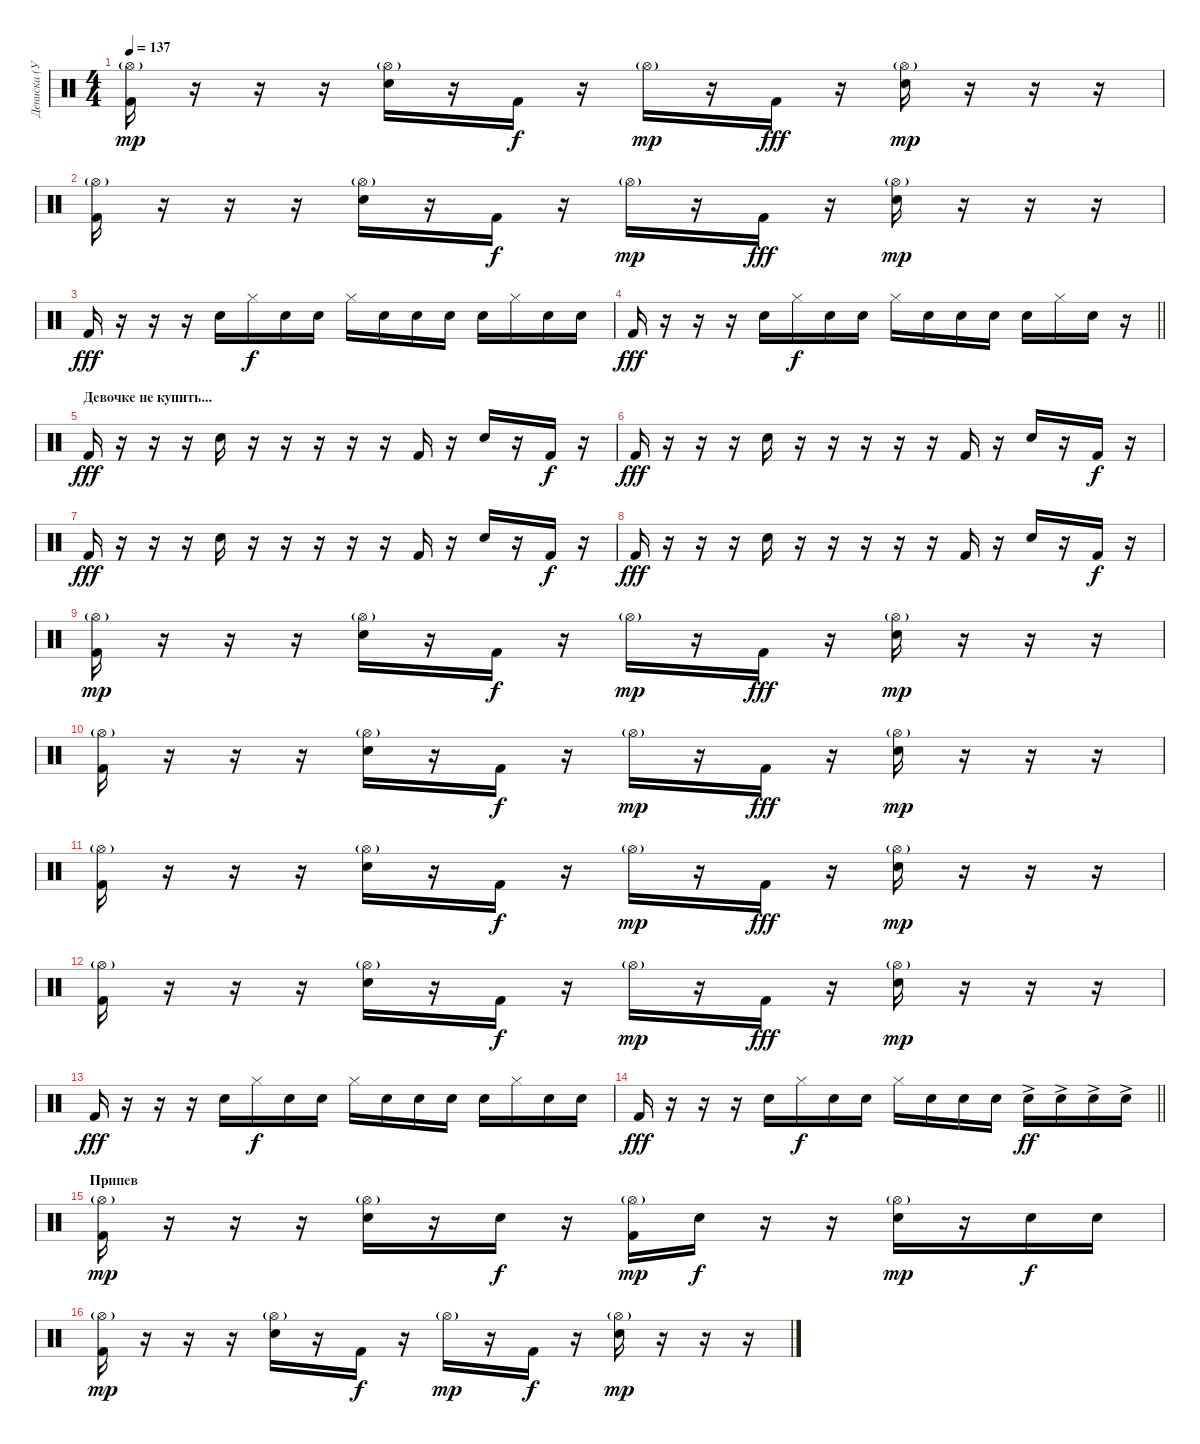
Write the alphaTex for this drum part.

\track ("Дениска (Ударник)" "Дениска (У") {instrument percussion}
\staff
\articulation defaults
\ts (4 4)
\tempo 137
\clef neutral
\ks c
("Kick (hit) 2" "Hi-Hat (open)"{g}).16{dy mp} r.16 r.16 r.16 ("Snare (hit) 2" "Hi-Hat (open)"{g}).16 r.16 "Kick (hit) 2".16{dy f} r.16 "Hi-Hat (open)"{g}.16{dy mp} r.16 "Kick (hit) 2".16{dy fff} r.16 ("Snare (hit) 2" "Hi-Hat (open)"{g}).16{dy mp} r.16 r.16 r.16 |
("Kick (hit) 2" "Hi-Hat (open)"{g}).16 r.16 r.16 r.16 ("Snare (hit) 2" "Hi-Hat (open)"{g}).16 r.16 "Kick (hit) 2".16{dy f} r.16 "Hi-Hat (open)"{g}.16{dy mp} r.16 "Kick (hit) 2".16{dy fff} r.16 ("Snare (hit) 2" "Hi-Hat (open)"{g}).16{dy mp} r.16 r.16 r.16 |
"Kick (hit) 2".16{dy fff} r.16 r.16 r.16 "Snare (hit) 2".16 "Hi-Hat (closed)".16{dy f} "Snare (hit) 2".16 "Snare (hit) 2".16 "Hi-Hat (closed)".16 "Snare (hit) 2".16 "Snare (hit) 2".16 "Snare (hit) 2".16 "Snare (hit) 2".16 "Hi-Hat (closed)".16 "Snare (hit) 2".16 "Snare (hit) 2".16 |
\barLineRight lightlight "Kick (hit) 2".16{dy fff}
r.16 r.16 r.16 "Snare (hit) 2".16 "Hi-Hat (closed)".16{dy f} "Snare (hit) 2".16 "Snare (hit) 2".16 "Hi-Hat (closed)".16 "Snare (hit) 2".16 "Snare (hit) 2".16 "Snare (hit) 2".16 "Snare (hit) 2".16 "Hi-Hat (closed)".16 "Snare (hit) 2".16 r.16 |
\section ("" "Девочке не купить...")
"Kick (hit) 2".16{dy fff} r.16 r.16 r.16 "Snare (hit) 2".16 r.16 r.16 r.16 r.16 r.16 "Kick (hit) 2".16 r.16 "Snare (hit) 2".16 r.16 "Kick (hit) 2".16{dy f} r.16 |
"Kick (hit) 2".16{dy fff} r.16 r.16 r.16 "Snare (hit) 2".16 r.16 r.16 r.16 r.16 r.16 "Kick (hit) 2".16 r.16 "Snare (hit) 2".16 r.16 "Kick (hit) 2".16{dy f} r.16 |
"Kick (hit) 2".16{dy fff} r.16 r.16 r.16 "Snare (hit) 2".16 r.16 r.16 r.16 r.16 r.16 "Kick (hit) 2".16 r.16 "Snare (hit) 2".16 r.16 "Kick (hit) 2".16{dy f} r.16 |
"Kick (hit) 2".16{dy fff} r.16 r.16 r.16 "Snare (hit) 2".16 r.16 r.16 r.16 r.16 r.16 "Kick (hit) 2".16 r.16 "Snare (hit) 2".16 r.16 "Kick (hit) 2".16{dy f} r.16 |
("Kick (hit) 2" "Hi-Hat (open)"{g}).16{dy mp} r.16 r.16 r.16 ("Snare (hit) 2" "Hi-Hat (open)"{g}).16 r.16 "Kick (hit) 2".16{dy f} r.16 "Hi-Hat (open)"{g}.16{dy mp} r.16 "Kick (hit) 2".16{dy fff} r.16 ("Snare (hit) 2" "Hi-Hat (open)"{g}).16{dy mp} r.16 r.16 r.16 |
("Kick (hit) 2" "Hi-Hat (open)"{g}).16 r.16 r.16 r.16 ("Snare (hit) 2" "Hi-Hat (open)"{g}).16 r.16 "Kick (hit) 2".16{dy f} r.16 "Hi-Hat (open)"{g}.16{dy mp} r.16 "Kick (hit) 2".16{dy fff} r.16 ("Snare (hit) 2" "Hi-Hat (open)"{g}).16{dy mp} r.16 r.16 r.16 |
("Kick (hit) 2" "Hi-Hat (open)"{g}).16 r.16 r.16 r.16 ("Snare (hit) 2" "Hi-Hat (open)"{g}).16 r.16 "Kick (hit) 2".16{dy f} r.16 "Hi-Hat (open)"{g}.16{dy mp} r.16 "Kick (hit) 2".16{dy fff} r.16 ("Snare (hit) 2" "Hi-Hat (open)"{g}).16{dy mp} r.16 r.16 r.16 |
("Kick (hit) 2" "Hi-Hat (open)"{g}).16 r.16 r.16 r.16 ("Snare (hit) 2" "Hi-Hat (open)"{g}).16 r.16 "Kick (hit) 2".16{dy f} r.16 "Hi-Hat (open)"{g}.16{dy mp} r.16 "Kick (hit) 2".16{dy fff} r.16 ("Snare (hit) 2" "Hi-Hat (open)"{g}).16{dy mp} r.16 r.16 r.16 |
"Kick (hit) 2".16{dy fff} r.16 r.16 r.16 "Snare (hit) 2".16 "Hi-Hat (closed)".16{dy f} "Snare (hit) 2".16 "Snare (hit) 2".16 "Hi-Hat (closed)".16 "Snare (hit) 2".16 "Snare (hit) 2".16 "Snare (hit) 2".16 "Snare (hit) 2".16 "Hi-Hat (closed)".16 "Snare (hit) 2".16 "Snare (hit) 2".16 |
\barLineRight lightlight "Kick (hit) 2".16{dy fff}
r.16 r.16 r.16 "Snare (hit) 2".16 "Hi-Hat (closed)".16{dy f} "Snare (hit) 2".16 "Snare (hit) 2".16 "Hi-Hat (closed)".16 "Snare (hit) 2".16 "Snare (hit) 2".16 "Snare (hit) 2".16 "Snare (hit) 2"{ac}.16{dy ff} "Snare (hit) 2"{ac}.16 "Snare (hit) 2"{ac}.16 "Snare (hit) 2"{ac}.16 |
\section ("" "Припев")
("Kick (hit) 2" "Hi-Hat (open)"{g}).16{dy mp} r.16 r.16 r.16 ("Snare (hit) 2" "Hi-Hat (open)"{g}).16 r.16 "Snare (hit) 2".16{dy f} r.16 ("Kick (hit) 2" "Hi-Hat (open)"{g}).16{dy mp} "Snare (hit) 2".16{dy f} r.16 r.16 ("Snare (hit) 2" "Hi-Hat (open)"{g}).16{dy mp} r.16 "Snare (hit) 2".16{dy f} "Snare (hit) 2".16 |
("Kick (hit) 2" "Hi-Hat (open)"{g}).16{dy mp} r.16 r.16 r.16 ("Snare (hit) 2" "Hi-Hat (open)"{g}).16 r.16 "Kick (hit) 2".16{dy f} r.16 "Hi-Hat (open)"{g}.16{dy mp} r.16 "Kick (hit) 2".16{dy f} r.16 ("Snare (hit) 2" "Hi-Hat (open)"{g}).16{dy mp} r.16 r.16 r.16
